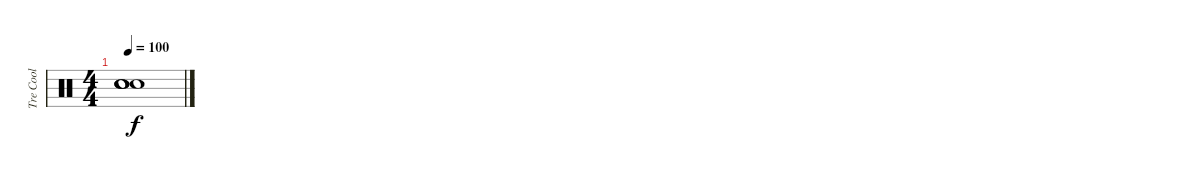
\track ("Tre Cool" "Tre Cool") {instrument percussion}
\staff {score}
\articulation defaults
\ts (4 4)
\tempo 100
\clef neutral
\ks c
("Snare (hit)"{t} "Snare (hit)"{t} "Snare (hit)"{t} "Snare (hit)"{t}).1{dy f}
